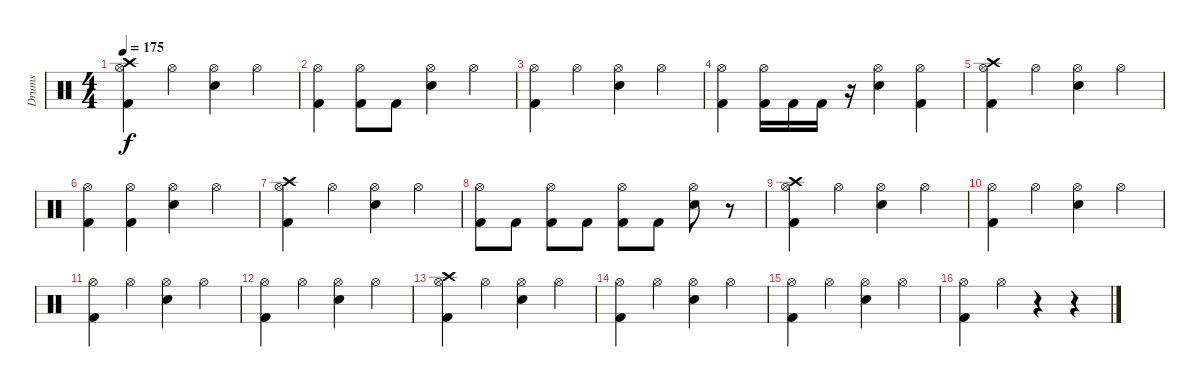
\track ("Drums" "Drums") {instrument percussion}
\staff {score}
\articulation defaults
\ts (4 4)
\tempo 175
\clef neutral
\ks c
("Crash high (hit)" "Hi-Hat (open)" "Kick (hit) 2").4{dy f} "Hi-Hat (open)".4 ("Hi-Hat (open)" "Snare (hit) 2").4 "Hi-Hat (open)".4 |
("Hi-Hat (open)" "Kick (hit) 2").4 ("Hi-Hat (open)" "Kick (hit) 2").8 "Kick (hit) 2".8 ("Hi-Hat (open)" "Snare (hit) 2").4 "Hi-Hat (open)".4 |
("Hi-Hat (open)" "Kick (hit) 2").4 "Hi-Hat (open)".4 ("Hi-Hat (open)" "Snare (hit) 2").4 "Hi-Hat (open)".4 |
("Hi-Hat (open)" "Kick (hit) 2").4 ("Hi-Hat (open)" "Kick (hit) 2").16 "Kick (hit) 2".16 "Kick (hit) 2".16 r.16 ("Hi-Hat (open)" "Snare (hit) 2").4 ("Hi-Hat (open)" "Kick (hit) 2").4 |
("Crash high (hit)" "Hi-Hat (open)" "Kick (hit) 2").4 "Hi-Hat (open)".4 ("Hi-Hat (open)" "Snare (hit) 2").4 "Hi-Hat (open)".4 |
("Hi-Hat (open)" "Kick (hit) 2").4 ("Hi-Hat (open)" "Kick (hit) 2").4 ("Hi-Hat (open)" "Snare (hit) 2").4 "Hi-Hat (open)".4 |
("Crash high (hit)" "Hi-Hat (open)" "Kick (hit) 2").4 "Hi-Hat (open)".4 ("Hi-Hat (open)" "Snare (hit) 2").4 "Hi-Hat (open)".4 |
("Hi-Hat (open)" "Kick (hit) 2").8 "Kick (hit) 2".8 ("Hi-Hat (open)" "Kick (hit) 2").8 "Kick (hit) 2".8 ("Hi-Hat (open)" "Kick (hit) 2").8 "Kick (hit) 2".8 ("Hi-Hat (open)" "Snare (hit) 2").8 r.8 |
("Crash high (hit)" "Hi-Hat (open)" "Kick (hit) 2").4 "Hi-Hat (open)".4 ("Hi-Hat (open)" "Snare (hit) 2").4 "Hi-Hat (open)".4 |
("Hi-Hat (open)" "Kick (hit) 2").4 "Hi-Hat (open)".4 ("Hi-Hat (open)" "Snare (hit) 2").4 "Hi-Hat (open)".4 |
("Hi-Hat (open)" "Kick (hit) 2").4 "Hi-Hat (open)".4 ("Hi-Hat (open)" "Snare (hit) 2").4 "Hi-Hat (open)".4 |
("Hi-Hat (open)" "Kick (hit) 2").4 "Hi-Hat (open)".4 ("Hi-Hat (open)" "Snare (hit) 2").4 "Hi-Hat (open)".4 |
("Crash high (hit)" "Hi-Hat (open)" "Kick (hit) 2").4 "Hi-Hat (open)".4 ("Hi-Hat (open)" "Snare (hit) 2").4 "Hi-Hat (open)".4 |
("Hi-Hat (open)" "Kick (hit) 2").4 "Hi-Hat (open)".4 ("Hi-Hat (open)" "Snare (hit) 2").4 "Hi-Hat (open)".4 |
("Hi-Hat (open)" "Kick (hit) 2").4 "Hi-Hat (open)".4 ("Hi-Hat (open)" "Snare (hit) 2").4 "Hi-Hat (open)".4 |
("Hi-Hat (open)" "Kick (hit) 2").4 "Hi-Hat (open)".4 r.4 r.4
